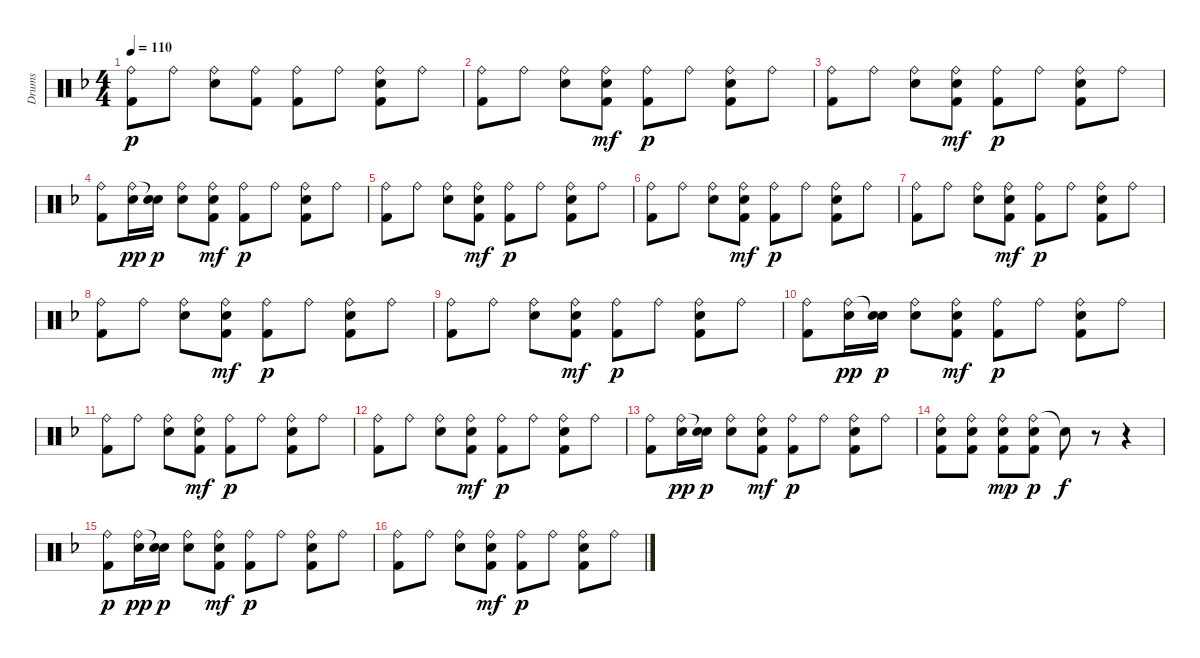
\track ("Drums" "Drums") {instrument percussion}
\staff {score}
\articulation defaults
\ts (4 4)
\tempo 110
\clef neutral
\ks f
("Ride (bell)" "Kick (hit) 2").8{dy p} "Ride (bell)".8 ("Ride (bell)" "Electric Snare (hit)").8 ("Ride (bell)" "Kick (hit) 2").8 ("Ride (bell)" "Kick (hit) 2").8 "Ride (bell)".8 ("Ride (bell)" "Electric Snare (hit)" "Kick (hit) 2").8 "Ride (bell)".8 |
("Ride (bell)" "Kick (hit) 2").8 "Ride (bell)".8 ("Ride (bell)" "Electric Snare (hit)").8 ("Ride (bell)" "Electric Snare (hit)" "Kick (hit) 2").8{dy mf} ("Ride (bell)" "Kick (hit) 2").8{dy p} "Ride (bell)".8 ("Ride (bell)" "Electric Snare (hit)" "Kick (hit) 2").8 "Ride (bell)".8 |
("Ride (bell)" "Kick (hit) 2").8 "Ride (bell)".8 ("Ride (bell)" "Electric Snare (hit)").8 ("Ride (bell)" "Electric Snare (hit)" "Kick (hit) 2").8{dy mf} ("Ride (bell)" "Kick (hit) 2").8{dy p} "Ride (bell)".8 ("Ride (bell)" "Electric Snare (hit)" "Kick (hit) 2").8 "Ride (bell)".8 |
("Ride (bell)" "Kick (hit) 2").8 ("Ride (bell)" "Electric Snare (hit)").16{dy pp} ("Snare (hit)"{t} "Electric Snare (hit)").16{dy p} ("Ride (bell)" "Electric Snare (hit)").8 ("Ride (bell)" "Electric Snare (hit)" "Kick (hit) 2").8{dy mf} ("Ride (bell)" "Kick (hit) 2").8{dy p} "Ride (bell)".8 ("Ride (bell)" "Electric Snare (hit)" "Kick (hit) 2").8 "Ride (bell)".8 |
("Ride (bell)" "Kick (hit) 2").8 "Ride (bell)".8 ("Ride (bell)" "Electric Snare (hit)").8 ("Ride (bell)" "Electric Snare (hit)" "Kick (hit) 2").8{dy mf} ("Ride (bell)" "Kick (hit) 2").8{dy p} "Ride (bell)".8 ("Ride (bell)" "Electric Snare (hit)" "Kick (hit) 2").8 "Ride (bell)".8 |
("Ride (bell)" "Kick (hit) 2").8 "Ride (bell)".8 ("Ride (bell)" "Electric Snare (hit)").8 ("Ride (bell)" "Electric Snare (hit)" "Kick (hit) 2").8{dy mf} ("Ride (bell)" "Kick (hit) 2").8{dy p} "Ride (bell)".8 ("Ride (bell)" "Electric Snare (hit)" "Kick (hit) 2").8 "Ride (bell)".8 |
("Ride (bell)" "Kick (hit) 2").8 "Ride (bell)".8 ("Ride (bell)" "Electric Snare (hit)").8 ("Ride (bell)" "Electric Snare (hit)" "Kick (hit) 2").8{dy mf} ("Ride (bell)" "Kick (hit) 2").8{dy p} "Ride (bell)".8 ("Ride (bell)" "Electric Snare (hit)" "Kick (hit) 2").8 "Ride (bell)".8 |
("Ride (bell)" "Kick (hit) 2").8 "Ride (bell)".8 ("Ride (bell)" "Electric Snare (hit)").8 ("Ride (bell)" "Electric Snare (hit)" "Kick (hit) 2").8{dy mf} ("Ride (bell)" "Kick (hit) 2").8{dy p} "Ride (bell)".8 ("Ride (bell)" "Electric Snare (hit)" "Kick (hit) 2").8 "Ride (bell)".8 |
("Ride (bell)" "Kick (hit) 2").8 "Ride (bell)".8 ("Ride (bell)" "Electric Snare (hit)").8 ("Ride (bell)" "Electric Snare (hit)" "Kick (hit) 2").8{dy mf} ("Ride (bell)" "Kick (hit) 2").8{dy p} "Ride (bell)".8 ("Ride (bell)" "Electric Snare (hit)" "Kick (hit) 2").8 "Ride (bell)".8 |
("Ride (bell)" "Kick (hit) 2").8 ("Ride (bell)" "Electric Snare (hit)").16{dy pp} ("Snare (hit)"{t} "Electric Snare (hit)").16{dy p} ("Ride (bell)" "Electric Snare (hit)").8 ("Ride (bell)" "Electric Snare (hit)" "Kick (hit) 2").8{dy mf} ("Ride (bell)" "Kick (hit) 2").8{dy p} "Ride (bell)".8 ("Ride (bell)" "Electric Snare (hit)" "Kick (hit) 2").8 "Ride (bell)".8 |
("Ride (bell)" "Kick (hit) 2").8 "Ride (bell)".8 ("Ride (bell)" "Electric Snare (hit)").8 ("Ride (bell)" "Electric Snare (hit)" "Kick (hit) 2").8{dy mf} ("Ride (bell)" "Kick (hit) 2").8{dy p} "Ride (bell)".8 ("Ride (bell)" "Electric Snare (hit)" "Kick (hit) 2").8 "Ride (bell)".8 |
("Ride (bell)" "Kick (hit) 2").8 "Ride (bell)".8 ("Ride (bell)" "Electric Snare (hit)").8 ("Ride (bell)" "Electric Snare (hit)" "Kick (hit) 2").8{dy mf} ("Ride (bell)" "Kick (hit) 2").8{dy p} "Ride (bell)".8 ("Ride (bell)" "Electric Snare (hit)" "Kick (hit) 2").8 "Ride (bell)".8 |
("Ride (bell)" "Kick (hit) 2").8 ("Ride (bell)" "Electric Snare (hit)").16{dy pp} ("Snare (hit)"{t} "Electric Snare (hit)").16{dy p} ("Ride (bell)" "Electric Snare (hit)").8 ("Ride (bell)" "Electric Snare (hit)" "Kick (hit) 2").8{dy mf} ("Ride (bell)" "Kick (hit) 2").8{dy p} "Ride (bell)".8 ("Ride (bell)" "Electric Snare (hit)" "Kick (hit) 2").8 "Ride (bell)".8 |
("Ride (bell)" "Electric Snare (hit)" "Kick (hit) 2").8 ("Ride (bell)" "Electric Snare (hit)" "Kick (hit) 2").8 ("Ride (bell)" "Electric Snare (hit)" "Kick (hit) 2").8{dy mp} ("Ride (bell)" "Electric Snare (hit)" "Kick (hit) 2").8{dy p} "Snare (hit)"{t}.8{dy f} r.8 r.4 |
("Ride (bell)" "Kick (hit) 2").8{dy p} ("Ride (bell)" "Electric Snare (hit)").16{dy pp} ("Snare (hit)"{t} "Electric Snare (hit)").16{dy p} ("Ride (bell)" "Electric Snare (hit)").8 ("Ride (bell)" "Electric Snare (hit)" "Kick (hit) 2").8{dy mf} ("Ride (bell)" "Kick (hit) 2").8{dy p} "Ride (bell)".8 ("Ride (bell)" "Electric Snare (hit)" "Kick (hit) 2").8 "Ride (bell)".8 |
("Ride (bell)" "Kick (hit) 2").8 "Ride (bell)".8 ("Ride (bell)" "Electric Snare (hit)").8 ("Ride (bell)" "Electric Snare (hit)" "Kick (hit) 2").8{dy mf} ("Ride (bell)" "Kick (hit) 2").8{dy p} "Ride (bell)".8 ("Ride (bell)" "Electric Snare (hit)" "Kick (hit) 2").8 "Ride (bell)".8
